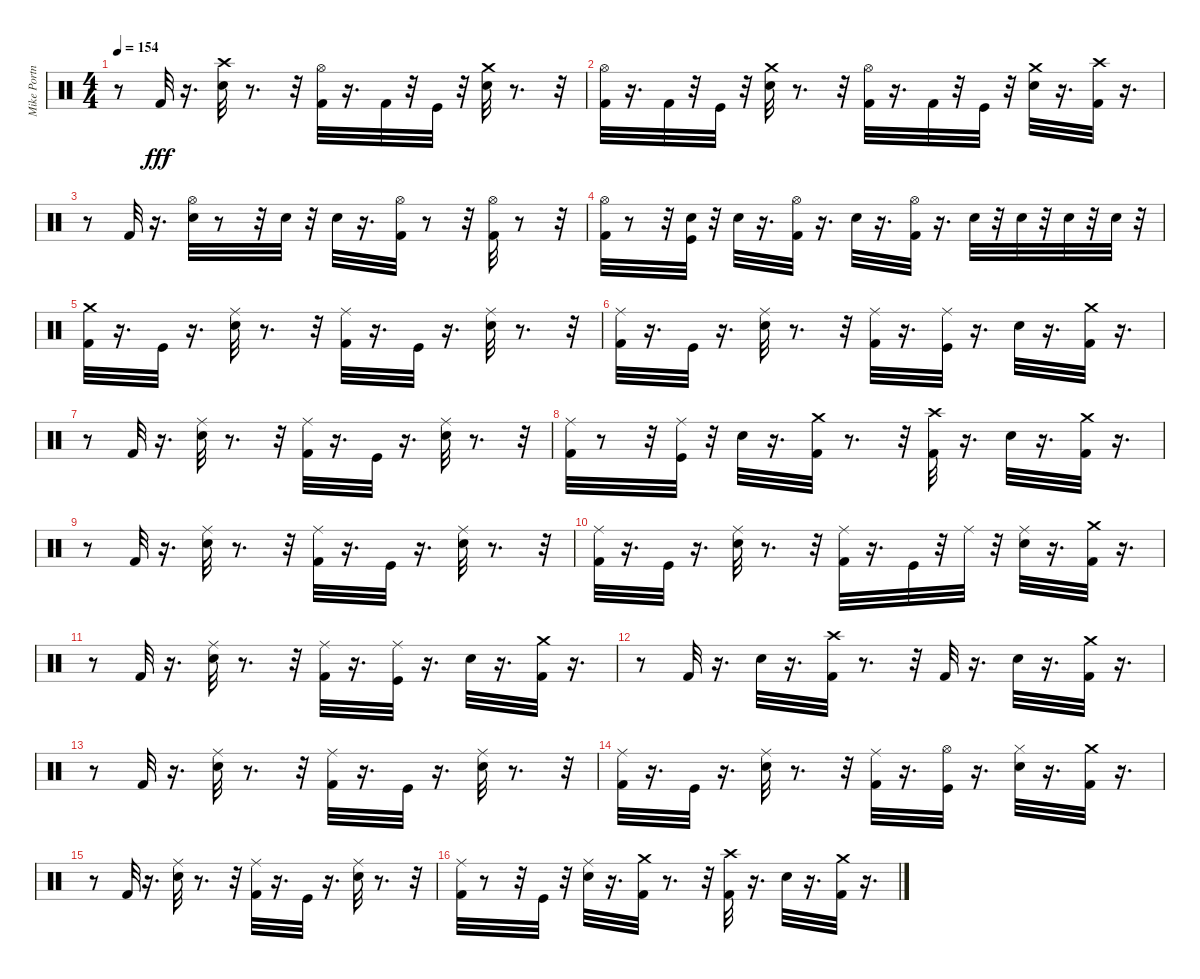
\track ("Mike Portnoy" "Mike Portn") {instrument percussion}
\staff {score}
\articulation defaults
\ts (4 4)
\tempo 154
\clef neutral
\ks c
r.8{dy fff} "Kick (hit) 2".32 r.16{d} ("Snare (hit) 2" "Crash high (hit)").32 r.8{d} r.32 ("Kick (hit) 2" "Hi-Hat (open)").32 r.16{d} "Kick (hit) 2".32 r.32 "Kick (hit)".32 r.32 ("Snare (hit) 2" "Crash medium (hit)").32 r.8{d} r.32 |
("Kick (hit) 2" "Hi-Hat (open)").32 r.16{d} "Kick (hit) 2".32 r.32 "Kick (hit)".32 r.32 ("Snare (hit) 2" "Crash medium (hit)").32 r.8{d} r.32 ("Kick (hit) 2" "Hi-Hat (open)").32 r.16{d} "Kick (hit) 2".32 r.32 "Kick (hit)".32 r.32 ("Snare (hit) 2" "Crash medium (hit)").32 r.16{d} ("Kick (hit) 2" "Crash high (hit)").32 r.16{d} |
r.8 "Kick (hit) 2".32 r.16{d} ("Snare (hit) 2" "Hi-Hat (open)").32 r.8 r.32 "Snare (hit) 2".32 r.32 "Snare (hit) 2".32 r.16{d} ("Kick (hit) 2" "Hi-Hat (open)").32 r.8 r.32 ("Hi-Hat (open)" "Kick (hit) 2").32 r.8 r.32 |
("Kick (hit) 2" "Hi-Hat (open)").32 r.8 r.32 ("Snare (hit) 2" "Kick (hit)").32 r.32 "Snare (hit) 2".32 r.16{d} ("Kick (hit) 2" "Hi-Hat (open)").32 r.16{d} "Snare (hit) 2".32 r.16{d} ("Kick (hit) 2" "Hi-Hat (open)").32 r.16{d} "Snare (hit) 2".32 r.32 "Snare (hit) 2".32 r.32 "Snare (hit) 2".32 r.32 "Snare (hit) 2".32 r.32 |
("Kick (hit) 2" "Crash medium (hit)").32 r.16{d} "Kick (hit)".32 r.16{d} ("Snare (hit) 2" "Ride (middle)").32 r.8{d} r.32 ("Kick (hit) 2" "Ride (middle)").32 r.16{d} "Kick (hit)".32 r.16{d} ("Snare (hit) 2" "Ride (middle)").32 r.8{d} r.32 |
("Kick (hit) 2" "Ride (middle)").32 r.16{d} "Kick (hit)".32 r.16{d} ("Snare (hit) 2" "Ride (middle)").32 r.8{d} r.32 ("Kick (hit) 2" "Ride (middle)").32 r.16{d} ("Kick (hit)" "Ride (middle)").32 r.16{d} "Snare (hit) 2".32 r.16{d} ("Crash medium (hit)" "Kick (hit) 2").32 r.16{d} |
r.8 "Kick (hit) 2".32 r.16{d} ("Snare (hit) 2" "Ride (middle)").32 r.8{d} r.32 ("Kick (hit) 2" "Ride (middle)").32 r.16{d} "Kick (hit)".32 r.16{d} ("Snare (hit) 2" "Ride (middle)").32 r.8{d} r.32 |
("Kick (hit) 2" "Ride (middle)").32 r.8 r.32 ("Kick (hit)" "Ride (middle)").32 r.32 "Snare (hit) 2".32 r.16{d} ("Kick (hit) 2" "Crash medium (hit)").32 r.8{d} r.32 ("Kick (hit) 2" "Crash high (hit)").32 r.16{d} "Snare (hit) 2".32 r.16{d} ("Kick (hit) 2" "Crash medium (hit)").32 r.16{d} |
r.8 "Kick (hit) 2".32 r.16{d} ("Snare (hit) 2" "Ride (middle)").32 r.8{d} r.32 ("Kick (hit) 2" "Ride (middle)").32 r.16{d} "Kick (hit)".32 r.16{d} ("Snare (hit) 2" "Ride (middle)").32 r.8{d} r.32 |
("Kick (hit) 2" "Ride (middle)").32 r.16{d} "Kick (hit)".32 r.16{d} ("Snare (hit) 2" "Ride (middle)").32 r.8{d} r.32 ("Kick (hit) 2" "Ride (middle)").32 r.16{d} "Kick (hit)".32 r.32 "Ride (middle)".32 r.32 ("Snare (hit) 2" "Ride (middle)").32 r.16{d} ("Kick (hit) 2" "Crash medium (hit)").32 r.16{d} |
r.8 "Kick (hit) 2".32 r.16{d} ("Snare (hit) 2" "Ride (middle)").32 r.8{d} r.32 ("Kick (hit) 2" "Ride (middle)").32 r.16{d} ("Kick (hit)" "Ride (middle)").32 r.16{d} "Snare (hit) 2".32 r.16{d} ("Kick (hit) 2" "Crash medium (hit)").32 r.16{d} |
r.8 "Kick (hit) 2".32 r.16{d} "Snare (hit) 2".32 r.16{d} ("Crash high (hit)" "Kick (hit) 2").32 r.8{d} r.32 "Kick (hit) 2".32 r.16{d} "Snare (hit) 2".32 r.16{d} ("Crash medium (hit)" "Kick (hit) 2").32 r.16{d} |
r.8 "Kick (hit) 2".32 r.16{d} ("Snare (hit) 2" "Ride (middle)").32 r.8{d} r.32 ("Kick (hit) 2" "Ride (middle)").32 r.16{d} "Kick (hit)".32 r.16{d} ("Snare (hit) 2" "Ride (middle)").32 r.8{d} r.32 |
("Kick (hit) 2" "Ride (middle)").32 r.16{d} "Kick (hit)".32 r.16{d} ("Snare (hit) 2" "Ride (middle)").32 r.8{d} r.32 ("Kick (hit) 2" "Ride (middle)").32 r.16{d} ("Kick (hit)" "Hi-Hat (open)").32 r.16{d} ("Snare (hit) 2" "Hi-Hat (closed)").32 r.16{d} ("Kick (hit) 2" "Crash medium (hit)").32 r.16{d} |
r.8 "Kick (hit) 2".32 r.16{d} ("Snare (hit) 2" "Ride (middle)").32 r.8{d} r.32 ("Kick (hit) 2" "Ride (middle)").32 r.16{d} "Kick (hit)".32 r.16{d} ("Snare (hit) 2" "Ride (middle)").32 r.8{d} r.32 |
("Kick (hit) 2" "Ride (middle)").32 r.8 r.32 "Kick (hit)".32 r.32 ("Snare (hit) 2" "Ride (middle)").32 r.16{d} ("Kick (hit) 2" "Crash medium (hit)").32 r.8{d} r.32 ("Kick (hit) 2" "Crash high (hit)").32 r.16{d} "Snare (hit) 2".32 r.16{d} ("Kick (hit) 2" "Crash medium (hit)").32 r.16{d}
